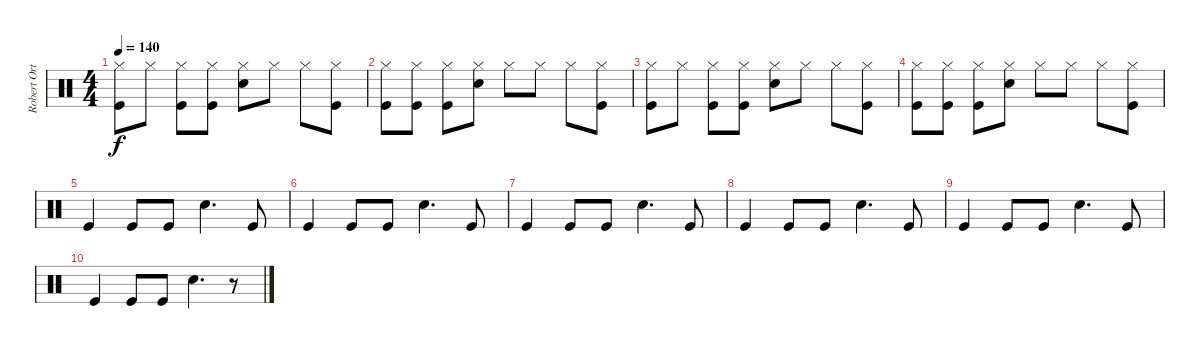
\track ("Robert Ortiz" "Robert Ort") {instrument percussion}
\staff {score}
\articulation defaults
\ts (4 4)
\tempo 140
\clef neutral
\ks c
("Hi-Hat (closed)" "Kick (hit)").8{dy f} "Hi-Hat (closed)".8 ("Hi-Hat (closed)" "Kick (hit)").8 ("Hi-Hat (closed)" "Kick (hit)").8 ("Hi-Hat (closed)" "Snare (hit) 2").8 "Hi-Hat (closed)".8 "Hi-Hat (closed)".8 ("Hi-Hat (closed)" "Kick (hit)").8 |
("Hi-Hat (closed)" "Kick (hit)").8 ("Hi-Hat (closed)" "Kick (hit)").8 ("Hi-Hat (closed)" "Kick (hit)").8 ("Hi-Hat (closed)" "Snare (hit) 2").8 "Hi-Hat (closed)".8 "Hi-Hat (closed)".8 "Hi-Hat (closed)".8 ("Hi-Hat (closed)" "Kick (hit)").8 |
("Hi-Hat (closed)" "Kick (hit)").8 "Hi-Hat (closed)".8 ("Hi-Hat (closed)" "Kick (hit)").8 ("Hi-Hat (closed)" "Kick (hit)").8 ("Hi-Hat (closed)" "Snare (hit) 2").8 "Hi-Hat (closed)".8 "Hi-Hat (closed)".8 ("Hi-Hat (closed)" "Kick (hit)").8 |
("Hi-Hat (closed)" "Kick (hit)").8 ("Hi-Hat (closed)" "Kick (hit)").8 ("Hi-Hat (closed)" "Kick (hit)").8 ("Hi-Hat (closed)" "Snare (hit) 2").8 "Hi-Hat (closed)".8 "Hi-Hat (closed)".8 "Hi-Hat (closed)".8 ("Hi-Hat (closed)" "Kick (hit)").8 |
"Kick (hit)".4 "Kick (hit)".8 "Kick (hit)".8 "Snare (hit) 2".4{d} "Kick (hit)".8 |
"Kick (hit)".4 "Kick (hit)".8 "Kick (hit)".8 "Snare (hit) 2".4{d} "Kick (hit)".8 |
"Kick (hit)".4 "Kick (hit)".8 "Kick (hit)".8 "Snare (hit) 2".4{d} "Kick (hit)".8 |
"Kick (hit)".4 "Kick (hit)".8 "Kick (hit)".8 "Snare (hit) 2".4{d} "Kick (hit)".8 |
"Kick (hit)".4 "Kick (hit)".8 "Kick (hit)".8 "Snare (hit) 2".4{d} "Kick (hit)".8 |
"Kick (hit)".4 "Kick (hit)".8 "Kick (hit)".8 "Snare (hit) 2".4{d} r.8
